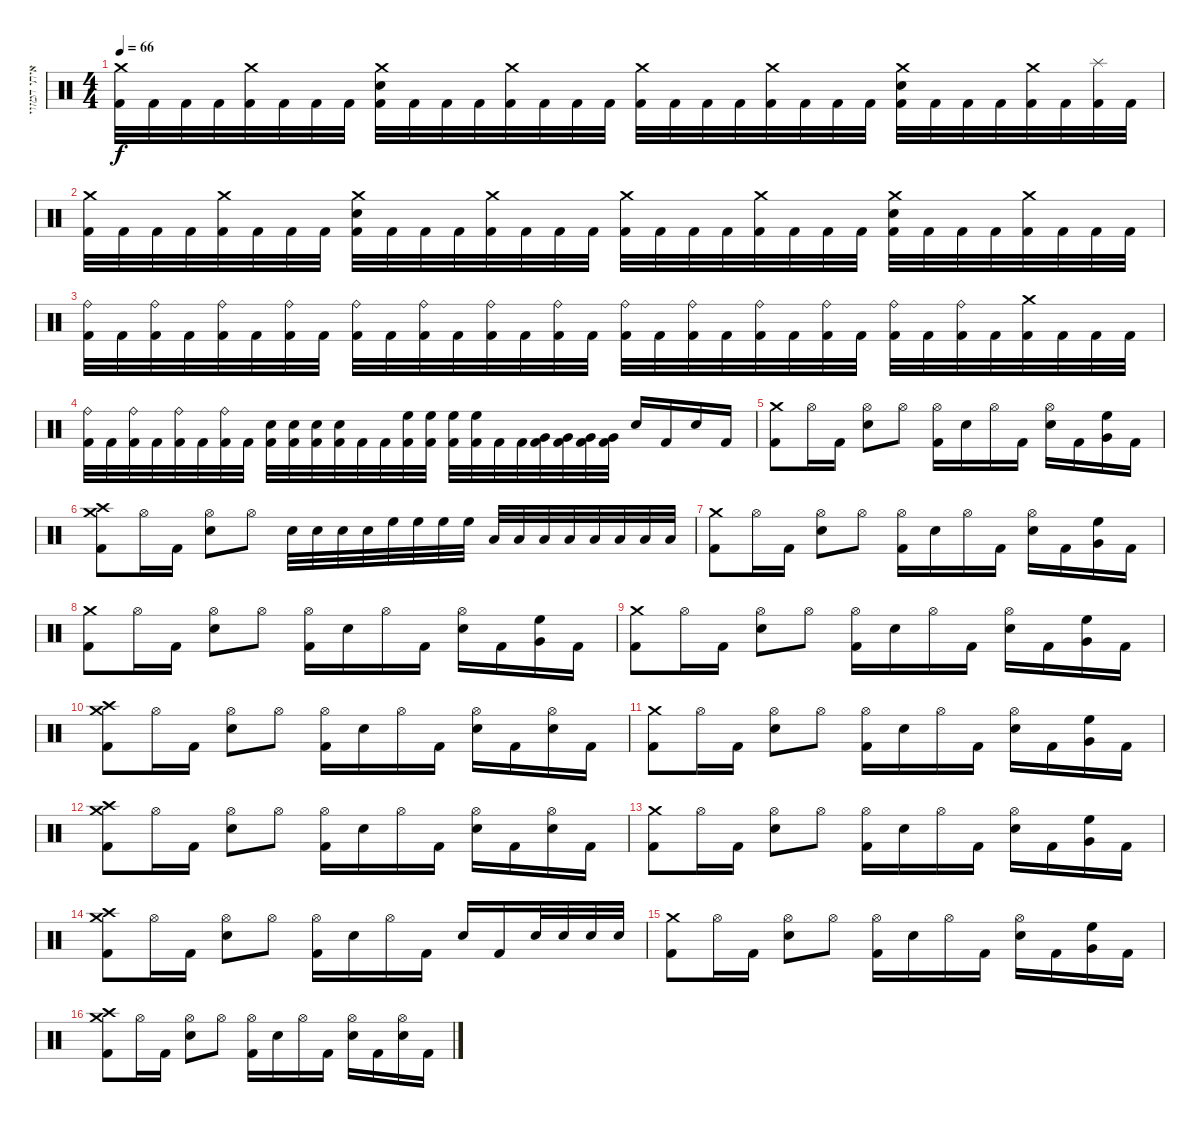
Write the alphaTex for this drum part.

\track ("איתי המזויין" "איתי המזוי") {instrument percussion}
\staff {score}
\articulation defaults
\ts (4 4)
\tempo 66
\clef neutral
\ks c
("Crash medium (hit)" "Kick (hit) 2").32{dy f} "Kick (hit) 2".32 "Kick (hit) 2".32 "Kick (hit) 2".32 ("Crash medium (hit)" "Kick (hit) 2").32 "Kick (hit) 2".32 "Kick (hit) 2".32 "Kick (hit) 2".32 ("Crash medium (hit)" "Kick (hit) 2" "Electric Snare (hit)").32 "Kick (hit) 2".32 "Kick (hit) 2".32 "Kick (hit) 2".32 ("Crash medium (hit)" "Kick (hit) 2").32 "Kick (hit) 2".32 "Kick (hit) 2".32 "Kick (hit) 2".32 ("Crash medium (hit)" "Kick (hit) 2").32 "Kick (hit) 2".32 "Kick (hit) 2".32 "Kick (hit) 2".32 ("Crash medium (hit)" "Kick (hit) 2").32 "Kick (hit) 2".32 "Kick (hit) 2".32 "Kick (hit) 2".32 ("Crash medium (hit)" "Kick (hit) 2" "Electric Snare (hit)").32 "Kick (hit) 2".32 "Kick (hit) 2".32 "Kick (hit) 2".32 ("Crash medium (hit)" "Kick (hit) 2").32 "Kick (hit) 2".32 ("Splash (hit)" "Kick (hit) 2").32 "Kick (hit) 2".32 |
("Crash medium (hit)" "Kick (hit) 2").32 "Kick (hit) 2".32 "Kick (hit) 2".32 "Kick (hit) 2".32 ("Crash medium (hit)" "Kick (hit) 2").32 "Kick (hit) 2".32 "Kick (hit) 2".32 "Kick (hit) 2".32 ("Crash medium (hit)" "Kick (hit) 2" "Electric Snare (hit)").32 "Kick (hit) 2".32 "Kick (hit) 2".32 "Kick (hit) 2".32 ("Crash medium (hit)" "Kick (hit) 2").32 "Kick (hit) 2".32 "Kick (hit) 2".32 "Kick (hit) 2".32 ("Crash medium (hit)" "Kick (hit) 2").32 "Kick (hit) 2".32 "Kick (hit) 2".32 "Kick (hit) 2".32 ("Crash medium (hit)" "Kick (hit) 2").32 "Kick (hit) 2".32 "Kick (hit) 2".32 "Kick (hit) 2".32 ("Crash medium (hit)" "Kick (hit) 2" "Electric Snare (hit)").32 "Kick (hit) 2".32 "Kick (hit) 2".32 "Kick (hit) 2".32 ("Crash medium (hit)" "Kick (hit) 2").32 "Kick (hit) 2".32 "Kick (hit) 2".32 "Kick (hit) 2".32 |
("Ride (bell)" "Kick (hit) 2").32 "Kick (hit) 2".32 ("Ride (bell)" "Kick (hit) 2").32 "Kick (hit) 2".32 ("Ride (bell)" "Kick (hit) 2").32 "Kick (hit) 2".32 ("Ride (bell)" "Kick (hit) 2").32 "Kick (hit) 2".32 ("Ride (bell)" "Kick (hit) 2").32 "Kick (hit) 2".32 ("Ride (bell)" "Kick (hit) 2").32 "Kick (hit) 2".32 ("Ride (bell)" "Kick (hit) 2").32 "Kick (hit) 2".32 ("Ride (bell)" "Kick (hit) 2").32 "Kick (hit) 2".32 ("Ride (bell)" "Kick (hit) 2").32 "Kick (hit) 2".32 ("Ride (bell)" "Kick (hit) 2").32 "Kick (hit) 2".32 ("Ride (bell)" "Kick (hit) 2").32 "Kick (hit) 2".32 ("Ride (bell)" "Kick (hit) 2").32 "Kick (hit) 2".32 ("Ride (bell)" "Kick (hit) 2").32 "Kick (hit) 2".32 ("Ride (bell)" "Kick (hit) 2").32 "Kick (hit) 2".32 ("Crash medium (hit)" "Kick (hit) 2").32 "Kick (hit) 2".32 "Kick (hit) 2".32 "Kick (hit) 2".32 |
("Ride (bell)" "Kick (hit) 2").32 "Kick (hit) 2".32 ("Ride (bell)" "Kick (hit) 2").32 "Kick (hit) 2".32 ("Ride (bell)" "Kick (hit) 2").32 "Kick (hit) 2".32 ("Ride (bell)" "Kick (hit) 2").32 "Kick (hit) 2".32 ("Electric Snare (hit)" "Kick (hit) 2").32 ("Electric Snare (hit)" "Kick (hit) 2").32 ("Electric Snare (hit)" "Kick (hit) 2").32 ("Electric Snare (hit)" "Kick (hit) 2").32 "Kick (hit) 2".32 "Kick (hit) 2".32 ("High Floor Tom (hit)" "Kick (hit) 2").32 ("High Floor Tom (hit)" "Kick (hit) 2").32 ("High Floor Tom (hit)" "Kick (hit) 2").32 ("High Floor Tom (hit)" "Kick (hit) 2").32 "Kick (hit) 2".32 "Kick (hit) 2".32 ("Kick (hit) 2" "Very Low Tom (hit)").32 ("Kick (hit) 2" "Very Low Tom (hit)").32 ("Kick (hit) 2" "Very Low Tom (hit)").32 ("Kick (hit) 2" "Very Low Tom (hit)").32 "Electric Snare (hit)".16 "Kick (hit) 2".16 "Electric Snare (hit)".16 "Kick (hit) 2".16 |
("Crash medium (hit)" "Kick (hit) 2").8 "Hi-Hat (open)".16 "Kick (hit) 2".16 ("Hi-Hat (open)" "Electric Snare (hit)").8 "Hi-Hat (open)".8 ("Hi-Hat (open)" "Kick (hit) 2").16 "Electric Snare (hit)".16 "Hi-Hat (open)".16 "Kick (hit) 2".16 ("Hi-Hat (open)" "Electric Snare (hit)").16 "Kick (hit) 2".16 ("Very Low Tom (hit)" "High Floor Tom (hit)").16 "Kick (hit) 2".16 |
("Crash medium (hit)" "Crash high (hit)" "Kick (hit) 2").8 "Hi-Hat (open)".16 "Kick (hit) 2".16 ("Hi-Hat (open)" "Electric Snare (hit)").8 "Hi-Hat (open)".8 "Electric Snare (hit)".32 "Electric Snare (hit)".32 "Electric Snare (hit)".32 "Electric Snare (hit)".32 "High Floor Tom (hit)".32 "High Floor Tom (hit)".32 "High Floor Tom (hit)".32 "High Floor Tom (hit)".32 "Low Tom (hit)".32 "Low Tom (hit)".32 "Low Tom (hit)".32 "Low Tom (hit)".32 "Low Floor Tom (hit)".32 "Low Floor Tom (hit)".32 "Low Floor Tom (hit)".32 "Low Floor Tom (hit)".32 |
("Crash medium (hit)" "Kick (hit) 2").8 "Hi-Hat (open)".16 "Kick (hit) 2".16 ("Hi-Hat (open)" "Electric Snare (hit)").8 "Hi-Hat (open)".8 ("Hi-Hat (open)" "Kick (hit) 2").16 "Electric Snare (hit)".16 "Hi-Hat (open)".16 "Kick (hit) 2".16 ("Hi-Hat (open)" "Electric Snare (hit)").16 "Kick (hit) 2".16 ("Very Low Tom (hit)" "High Floor Tom (hit)").16 "Kick (hit) 2".16 |
("Crash medium (hit)" "Kick (hit) 2").8 "Hi-Hat (open)".16 "Kick (hit) 2".16 ("Hi-Hat (open)" "Electric Snare (hit)").8 "Hi-Hat (open)".8 ("Hi-Hat (open)" "Kick (hit) 2").16 "Electric Snare (hit)".16 "Hi-Hat (open)".16 "Kick (hit) 2".16 ("Hi-Hat (open)" "Electric Snare (hit)").16 "Kick (hit) 2".16 ("Very Low Tom (hit)" "High Floor Tom (hit)").16 "Kick (hit) 2".16 |
("Crash medium (hit)" "Kick (hit) 2").8 "Hi-Hat (open)".16 "Kick (hit) 2".16 ("Hi-Hat (open)" "Electric Snare (hit)").8 "Hi-Hat (open)".8 ("Hi-Hat (open)" "Kick (hit) 2").16 "Electric Snare (hit)".16 "Hi-Hat (open)".16 "Kick (hit) 2".16 ("Hi-Hat (open)" "Electric Snare (hit)").16 "Kick (hit) 2".16 ("Very Low Tom (hit)" "High Floor Tom (hit)").16 "Kick (hit) 2".16 |
("Crash medium (hit)" "Crash high (hit)" "Kick (hit) 2").8 "Hi-Hat (open)".16 "Kick (hit) 2".16 ("Hi-Hat (open)" "Electric Snare (hit)").8 "Hi-Hat (open)".8 ("Hi-Hat (open)" "Kick (hit) 2").16 "Electric Snare (hit)".16 "Hi-Hat (open)".16 "Kick (hit) 2".16 ("Hi-Hat (open)" "Electric Snare (hit)").16 "Kick (hit) 2".16 ("Hi-Hat (open)" "Electric Snare (hit)").16 "Kick (hit) 2".16 |
("Crash medium (hit)" "Kick (hit) 2").8 "Hi-Hat (open)".16 "Kick (hit) 2".16 ("Hi-Hat (open)" "Electric Snare (hit)").8 "Hi-Hat (open)".8 ("Hi-Hat (open)" "Kick (hit) 2").16 "Electric Snare (hit)".16 "Hi-Hat (open)".16 "Kick (hit) 2".16 ("Hi-Hat (open)" "Electric Snare (hit)").16 "Kick (hit) 2".16 ("Very Low Tom (hit)" "High Floor Tom (hit)").16 "Kick (hit) 2".16 |
("Crash medium (hit)" "Crash high (hit)" "Kick (hit) 2").8 "Hi-Hat (open)".16 "Kick (hit) 2".16 ("Hi-Hat (open)" "Electric Snare (hit)").8 "Hi-Hat (open)".8 ("Hi-Hat (open)" "Kick (hit) 2").16 "Electric Snare (hit)".16 "Hi-Hat (open)".16 "Kick (hit) 2".16 ("Hi-Hat (open)" "Electric Snare (hit)").16 "Kick (hit) 2".16 ("Hi-Hat (open)" "Electric Snare (hit)").16 "Kick (hit) 2".16 |
("Crash medium (hit)" "Kick (hit) 2").8 "Hi-Hat (open)".16 "Kick (hit) 2".16 ("Hi-Hat (open)" "Electric Snare (hit)").8 "Hi-Hat (open)".8 ("Hi-Hat (open)" "Kick (hit) 2").16 "Electric Snare (hit)".16 "Hi-Hat (open)".16 "Kick (hit) 2".16 ("Hi-Hat (open)" "Electric Snare (hit)").16 "Kick (hit) 2".16 ("Very Low Tom (hit)" "High Floor Tom (hit)").16 "Kick (hit) 2".16 |
("Crash medium (hit)" "Crash high (hit)" "Kick (hit) 2").8 "Hi-Hat (open)".16 "Kick (hit) 2".16 ("Hi-Hat (open)" "Electric Snare (hit)").8 "Hi-Hat (open)".8 ("Hi-Hat (open)" "Kick (hit) 2").16 "Electric Snare (hit)".16 "Hi-Hat (open)".16 "Kick (hit) 2".16 "Electric Snare (hit)".16 "Kick (hit) 2".16 "Electric Snare (hit)".32 "Electric Snare (hit)".32 "Electric Snare (hit)".32 "Electric Snare (hit)".32 |
("Crash medium (hit)" "Kick (hit) 2").8 "Hi-Hat (open)".16 "Kick (hit) 2".16 ("Hi-Hat (open)" "Electric Snare (hit)").8 "Hi-Hat (open)".8 ("Hi-Hat (open)" "Kick (hit) 2").16 "Electric Snare (hit)".16 "Hi-Hat (open)".16 "Kick (hit) 2".16 ("Hi-Hat (open)" "Electric Snare (hit)").16 "Kick (hit) 2".16 ("Very Low Tom (hit)" "High Floor Tom (hit)").16 "Kick (hit) 2".16 |
("Crash medium (hit)" "Crash high (hit)" "Kick (hit) 2").8 "Hi-Hat (open)".16 "Kick (hit) 2".16 ("Hi-Hat (open)" "Electric Snare (hit)").8 "Hi-Hat (open)".8 ("Hi-Hat (open)" "Kick (hit) 2").16 "Electric Snare (hit)".16 "Hi-Hat (open)".16 "Kick (hit) 2".16 ("Hi-Hat (open)" "Electric Snare (hit)").16 "Kick (hit) 2".16 ("Hi-Hat (open)" "Electric Snare (hit)").16 "Kick (hit) 2".16
